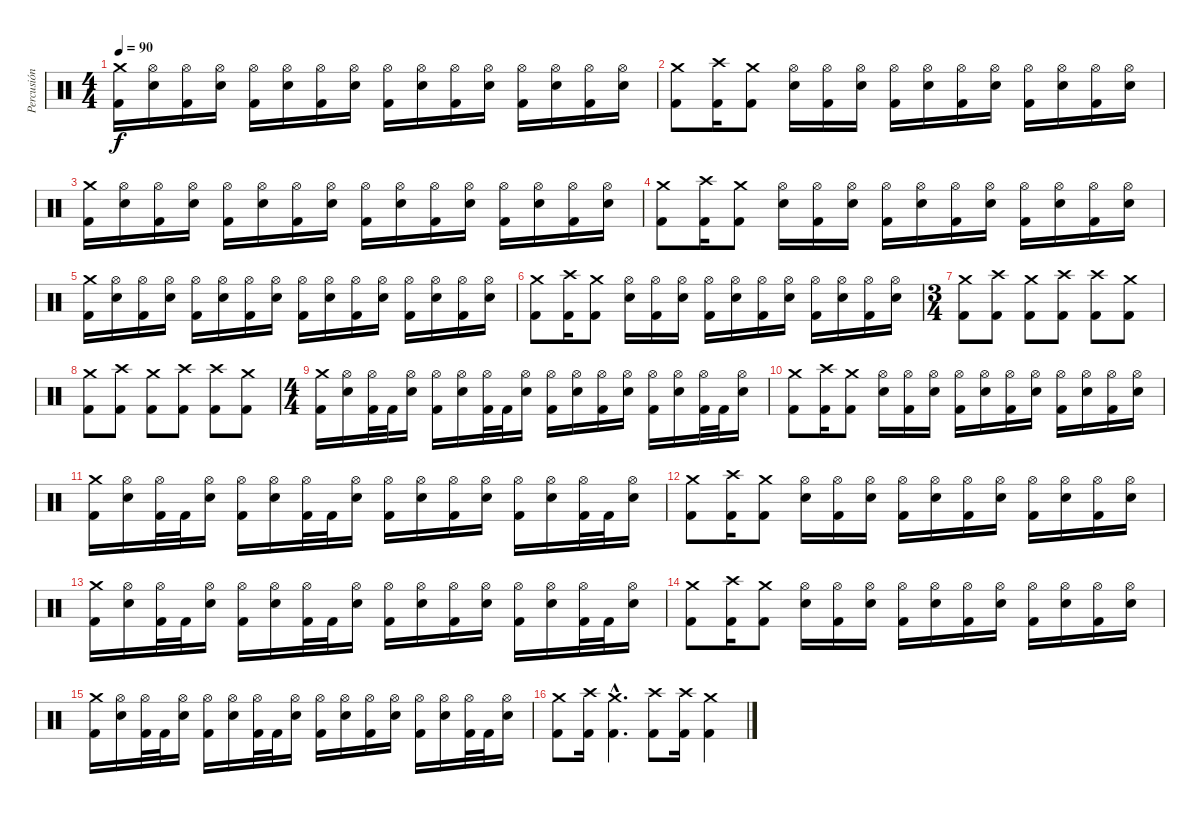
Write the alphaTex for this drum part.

\track ("Percusión" "Percusión") {instrument percussion}
\staff {score}
\articulation defaults
\ts (4 4)
\tempo 90
\clef neutral
\ks c
("Crash medium (hit)" "Kick (hit) 2").16{dy f} ("Hi-Hat (open)" "Snare (hit) 2").16 ("Hi-Hat (open)" "Kick (hit) 2").16 ("Hi-Hat (open)" "Snare (hit) 2").16 ("Hi-Hat (open)" "Kick (hit) 2").16 ("Hi-Hat (open)" "Snare (hit) 2").16 ("Hi-Hat (open)" "Kick (hit) 2").16 ("Hi-Hat (open)" "Snare (hit) 2").16 ("Hi-Hat (open)" "Kick (hit) 2").16 ("Hi-Hat (open)" "Snare (hit) 2").16 ("Hi-Hat (open)" "Kick (hit) 2").16 ("Hi-Hat (open)" "Snare (hit) 2").16 ("Hi-Hat (open)" "Kick (hit) 2").16 ("Hi-Hat (open)" "Snare (hit) 2").16 ("Hi-Hat (open)" "Kick (hit) 2").16 ("Hi-Hat (open)" "Snare (hit) 2").16 |
("Crash medium (hit)" "Kick (hit) 2").8 ("Crash high (hit)" "Kick (hit) 2").16 ("Crash medium (hit)" "Kick (hit) 2").8 ("Hi-Hat (open)" "Snare (hit) 2").16 ("Hi-Hat (open)" "Kick (hit) 2").16 ("Hi-Hat (open)" "Snare (hit) 2").16 ("Hi-Hat (open)" "Kick (hit) 2").16 ("Hi-Hat (open)" "Snare (hit) 2").16 ("Hi-Hat (open)" "Kick (hit) 2").16 ("Hi-Hat (open)" "Snare (hit) 2").16 ("Hi-Hat (open)" "Kick (hit) 2").16 ("Hi-Hat (open)" "Snare (hit) 2").16 ("Hi-Hat (open)" "Kick (hit) 2").16 ("Hi-Hat (open)" "Snare (hit) 2").16 |
("Crash medium (hit)" "Kick (hit) 2").16 ("Hi-Hat (open)" "Snare (hit) 2").16 ("Hi-Hat (open)" "Kick (hit) 2").16 ("Hi-Hat (open)" "Snare (hit) 2").16 ("Hi-Hat (open)" "Kick (hit) 2").16 ("Hi-Hat (open)" "Snare (hit) 2").16 ("Hi-Hat (open)" "Kick (hit) 2").16 ("Hi-Hat (open)" "Snare (hit) 2").16 ("Hi-Hat (open)" "Kick (hit) 2").16 ("Hi-Hat (open)" "Snare (hit) 2").16 ("Hi-Hat (open)" "Kick (hit) 2").16 ("Hi-Hat (open)" "Snare (hit) 2").16 ("Hi-Hat (open)" "Kick (hit) 2").16 ("Hi-Hat (open)" "Snare (hit) 2").16 ("Hi-Hat (open)" "Kick (hit) 2").16 ("Hi-Hat (open)" "Snare (hit) 2").16 |
("Crash medium (hit)" "Kick (hit) 2").8 ("Crash high (hit)" "Kick (hit) 2").16 ("Crash medium (hit)" "Kick (hit) 2").8 ("Hi-Hat (open)" "Snare (hit) 2").16 ("Hi-Hat (open)" "Kick (hit) 2").16 ("Hi-Hat (open)" "Snare (hit) 2").16 ("Hi-Hat (open)" "Kick (hit) 2").16 ("Hi-Hat (open)" "Snare (hit) 2").16 ("Hi-Hat (open)" "Kick (hit) 2").16 ("Hi-Hat (open)" "Snare (hit) 2").16 ("Hi-Hat (open)" "Kick (hit) 2").16 ("Hi-Hat (open)" "Snare (hit) 2").16 ("Hi-Hat (open)" "Kick (hit) 2").16 ("Hi-Hat (open)" "Snare (hit) 2").16 |
("Crash medium (hit)" "Kick (hit) 2").16 ("Hi-Hat (open)" "Snare (hit) 2").16 ("Hi-Hat (open)" "Kick (hit) 2").16 ("Hi-Hat (open)" "Snare (hit) 2").16 ("Hi-Hat (open)" "Kick (hit) 2").16 ("Hi-Hat (open)" "Snare (hit) 2").16 ("Hi-Hat (open)" "Kick (hit) 2").16 ("Hi-Hat (open)" "Snare (hit) 2").16 ("Hi-Hat (open)" "Kick (hit) 2").16 ("Hi-Hat (open)" "Snare (hit) 2").16 ("Hi-Hat (open)" "Kick (hit) 2").16 ("Hi-Hat (open)" "Snare (hit) 2").16 ("Hi-Hat (open)" "Kick (hit) 2").16 ("Hi-Hat (open)" "Snare (hit) 2").16 ("Hi-Hat (open)" "Kick (hit) 2").16 ("Hi-Hat (open)" "Snare (hit) 2").16 |
("Crash medium (hit)" "Kick (hit) 2").8 ("Crash high (hit)" "Kick (hit) 2").16 ("Crash medium (hit)" "Kick (hit) 2").8 ("Hi-Hat (open)" "Snare (hit) 2").16 ("Hi-Hat (open)" "Kick (hit) 2").16 ("Hi-Hat (open)" "Snare (hit) 2").16 ("Hi-Hat (open)" "Kick (hit) 2").16 ("Hi-Hat (open)" "Snare (hit) 2").16 ("Hi-Hat (open)" "Kick (hit) 2").16 ("Hi-Hat (open)" "Snare (hit) 2").16 ("Hi-Hat (open)" "Kick (hit) 2").16 ("Hi-Hat (open)" "Snare (hit) 2").16 ("Hi-Hat (open)" "Kick (hit) 2").16 ("Hi-Hat (open)" "Snare (hit) 2").16 |
\ts (3 4)
("Crash medium (hit)" "Kick (hit) 2").8 ("Crash high (hit)" "Kick (hit) 2").8 ("Crash medium (hit)" "Kick (hit) 2").8 ("Crash high (hit)" "Kick (hit) 2").8 ("Crash high (hit)" "Kick (hit) 2").8 ("Crash medium (hit)" "Kick (hit) 2").8 |
("Crash medium (hit)" "Kick (hit) 2").8 ("Crash high (hit)" "Kick (hit) 2").8 ("Crash medium (hit)" "Kick (hit) 2").8 ("Crash high (hit)" "Kick (hit) 2").8 ("Crash high (hit)" "Kick (hit) 2").8 ("Crash medium (hit)" "Kick (hit) 2").8 |
\ts (4 4)
("Crash medium (hit)" "Kick (hit) 2").16 ("Hi-Hat (open)" "Snare (hit) 2").16 ("Hi-Hat (open)" "Kick (hit) 2").32 "Kick (hit) 2".32 ("Hi-Hat (open)" "Snare (hit) 2").16 ("Hi-Hat (open)" "Kick (hit) 2").16 ("Hi-Hat (open)" "Snare (hit) 2").16 ("Hi-Hat (open)" "Kick (hit) 2").32 "Kick (hit) 2".32 ("Hi-Hat (open)" "Snare (hit) 2").16 ("Hi-Hat (open)" "Kick (hit) 2").16 ("Hi-Hat (open)" "Snare (hit) 2").16 ("Hi-Hat (open)" "Kick (hit) 2").16 ("Hi-Hat (open)" "Snare (hit) 2").16 ("Hi-Hat (open)" "Kick (hit) 2").16 ("Hi-Hat (open)" "Snare (hit) 2").16 ("Hi-Hat (open)" "Kick (hit) 2").32 "Kick (hit) 2".32 ("Hi-Hat (open)" "Snare (hit) 2").16 |
("Crash medium (hit)" "Kick (hit) 2").8 ("Crash high (hit)" "Kick (hit) 2").16 ("Crash medium (hit)" "Kick (hit) 2").8 ("Hi-Hat (open)" "Snare (hit) 2").16 ("Hi-Hat (open)" "Kick (hit) 2").16 ("Hi-Hat (open)" "Snare (hit) 2").16 ("Hi-Hat (open)" "Kick (hit) 2").16 ("Hi-Hat (open)" "Snare (hit) 2").16 ("Hi-Hat (open)" "Kick (hit) 2").16 ("Hi-Hat (open)" "Snare (hit) 2").16 ("Hi-Hat (open)" "Kick (hit) 2").16 ("Hi-Hat (open)" "Snare (hit) 2").16 ("Hi-Hat (open)" "Kick (hit) 2").16 ("Hi-Hat (open)" "Snare (hit) 2").16 |
("Crash medium (hit)" "Kick (hit) 2").16 ("Hi-Hat (open)" "Snare (hit) 2").16 ("Hi-Hat (open)" "Kick (hit) 2").32 "Kick (hit) 2".32 ("Hi-Hat (open)" "Snare (hit) 2").16 ("Hi-Hat (open)" "Kick (hit) 2").16 ("Hi-Hat (open)" "Snare (hit) 2").16 ("Hi-Hat (open)" "Kick (hit) 2").32 "Kick (hit) 2".32 ("Hi-Hat (open)" "Snare (hit) 2").16 ("Hi-Hat (open)" "Kick (hit) 2").16 ("Hi-Hat (open)" "Snare (hit) 2").16 ("Hi-Hat (open)" "Kick (hit) 2").16 ("Hi-Hat (open)" "Snare (hit) 2").16 ("Hi-Hat (open)" "Kick (hit) 2").16 ("Hi-Hat (open)" "Snare (hit) 2").16 ("Hi-Hat (open)" "Kick (hit) 2").32 "Kick (hit) 2".32 ("Hi-Hat (open)" "Snare (hit) 2").16 |
("Crash medium (hit)" "Kick (hit) 2").8 ("Crash high (hit)" "Kick (hit) 2").16 ("Crash medium (hit)" "Kick (hit) 2").8 ("Hi-Hat (open)" "Snare (hit) 2").16 ("Hi-Hat (open)" "Kick (hit) 2").16 ("Hi-Hat (open)" "Snare (hit) 2").16 ("Hi-Hat (open)" "Kick (hit) 2").16 ("Hi-Hat (open)" "Snare (hit) 2").16 ("Hi-Hat (open)" "Kick (hit) 2").16 ("Hi-Hat (open)" "Snare (hit) 2").16 ("Hi-Hat (open)" "Kick (hit) 2").16 ("Hi-Hat (open)" "Snare (hit) 2").16 ("Hi-Hat (open)" "Kick (hit) 2").16 ("Hi-Hat (open)" "Snare (hit) 2").16 |
("Crash medium (hit)" "Kick (hit) 2").16 ("Hi-Hat (open)" "Snare (hit) 2").16 ("Hi-Hat (open)" "Kick (hit) 2").32 "Kick (hit) 2".32 ("Hi-Hat (open)" "Snare (hit) 2").16 ("Hi-Hat (open)" "Kick (hit) 2").16 ("Hi-Hat (open)" "Snare (hit) 2").16 ("Hi-Hat (open)" "Kick (hit) 2").32 "Kick (hit) 2".32 ("Hi-Hat (open)" "Snare (hit) 2").16 ("Hi-Hat (open)" "Kick (hit) 2").16 ("Hi-Hat (open)" "Snare (hit) 2").16 ("Hi-Hat (open)" "Kick (hit) 2").16 ("Hi-Hat (open)" "Snare (hit) 2").16 ("Hi-Hat (open)" "Kick (hit) 2").16 ("Hi-Hat (open)" "Snare (hit) 2").16 ("Hi-Hat (open)" "Kick (hit) 2").32 "Kick (hit) 2".32 ("Hi-Hat (open)" "Snare (hit) 2").16 |
("Crash medium (hit)" "Kick (hit) 2").8 ("Crash high (hit)" "Kick (hit) 2").16 ("Crash medium (hit)" "Kick (hit) 2").8 ("Hi-Hat (open)" "Snare (hit) 2").16 ("Hi-Hat (open)" "Kick (hit) 2").16 ("Hi-Hat (open)" "Snare (hit) 2").16 ("Hi-Hat (open)" "Kick (hit) 2").16 ("Hi-Hat (open)" "Snare (hit) 2").16 ("Hi-Hat (open)" "Kick (hit) 2").16 ("Hi-Hat (open)" "Snare (hit) 2").16 ("Hi-Hat (open)" "Kick (hit) 2").16 ("Hi-Hat (open)" "Snare (hit) 2").16 ("Hi-Hat (open)" "Kick (hit) 2").16 ("Hi-Hat (open)" "Snare (hit) 2").16 |
("Crash medium (hit)" "Kick (hit) 2").16 ("Hi-Hat (open)" "Snare (hit) 2").16 ("Hi-Hat (open)" "Kick (hit) 2").32 "Kick (hit) 2".32 ("Hi-Hat (open)" "Snare (hit) 2").16 ("Hi-Hat (open)" "Kick (hit) 2").16 ("Hi-Hat (open)" "Snare (hit) 2").16 ("Hi-Hat (open)" "Kick (hit) 2").32 "Kick (hit) 2".32 ("Hi-Hat (open)" "Snare (hit) 2").16 ("Hi-Hat (open)" "Kick (hit) 2").16 ("Hi-Hat (open)" "Snare (hit) 2").16 ("Hi-Hat (open)" "Kick (hit) 2").16 ("Hi-Hat (open)" "Snare (hit) 2").16 ("Hi-Hat (open)" "Kick (hit) 2").16 ("Hi-Hat (open)" "Snare (hit) 2").16 ("Hi-Hat (open)" "Kick (hit) 2").32 "Kick (hit) 2".32 ("Hi-Hat (open)" "Snare (hit) 2").16 |
("Crash medium (hit)" "Kick (hit) 2").8 ("Crash high (hit)" "Kick (hit) 2").16 ("Crash medium (hit)"{hac} "Kick (hit) 2"{hac}).4{d} ("Crash high (hit)" "Kick (hit) 2").8 ("Crash high (hit)" "Kick (hit) 2").16 ("Crash medium (hit)" "Kick (hit) 2").4
